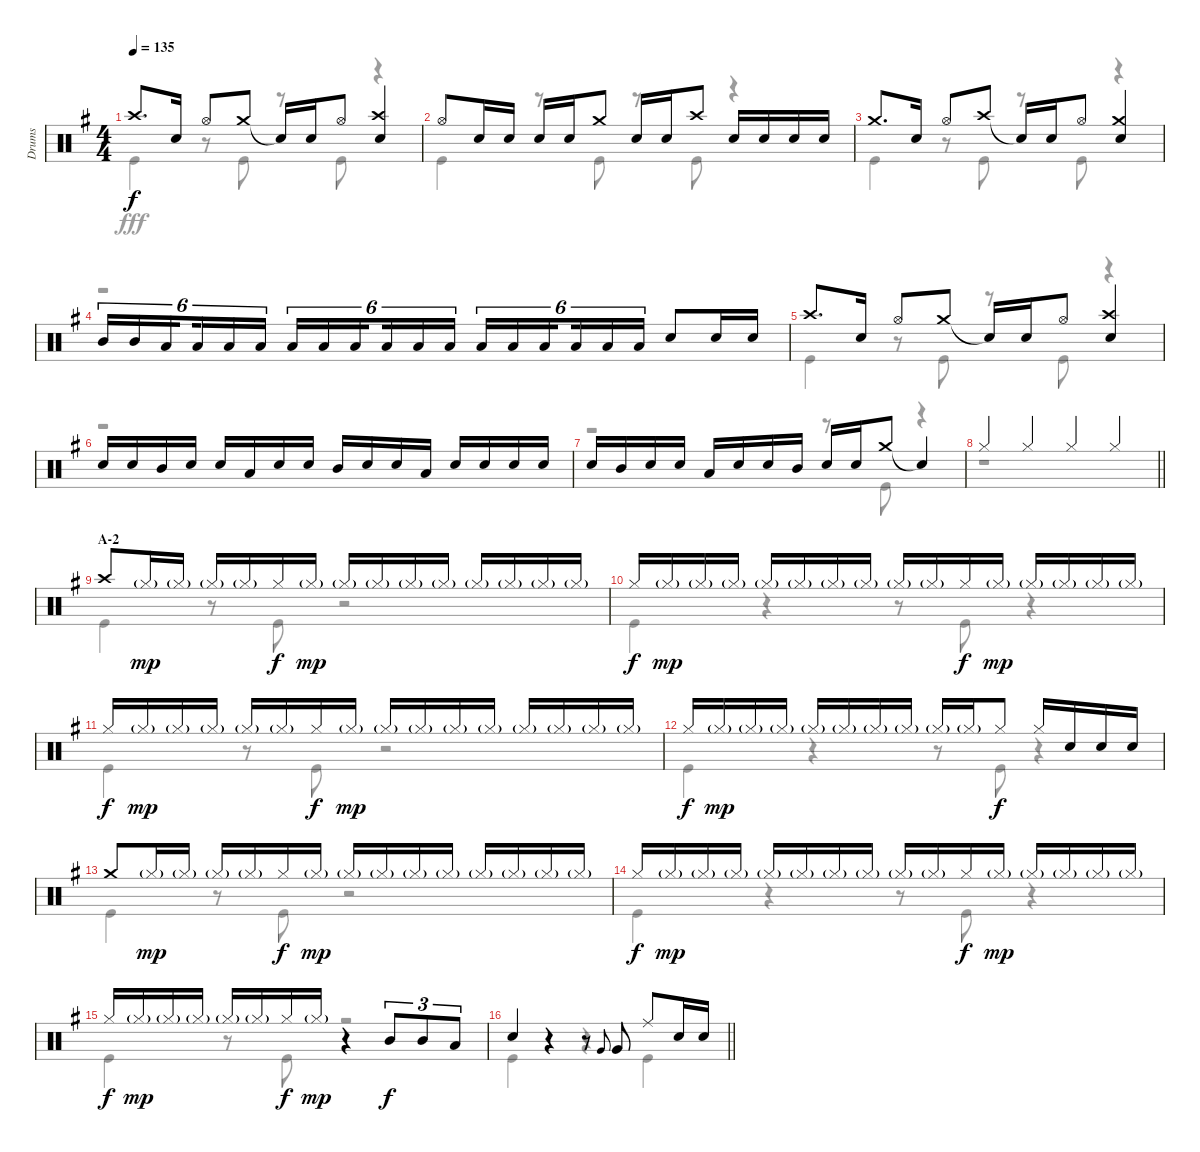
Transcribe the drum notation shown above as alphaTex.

\track ("Drums" "Drums") {instrument percussion}
\staff {score}
\articulation defaults
\voice
\ts (4 4)
\tempo 135
\clef neutral
\ks g "Crash high (hit)".8{d dy f} "Snare (hit) 2".16 "Hi-Hat (open)".8 "Crash medium (hit)".8 "Snare (hit)"{t}.16 "Snare (hit) 2".16 "Hi-Hat (open)".8
("Crash high (hit)" "Snare (hit) 2").4 |
"Hi-Hat (open)".8 "Snare (hit) 2".16 "Snare (hit) 2".16 "Snare (hit) 2".16 "Snare (hit) 2".16 "Crash medium (hit)".8 "Snare (hit) 2".16 "Snare (hit) 2".16 "Crash high (hit)".8 "Snare (hit) 2".16 "Snare (hit) 2".16 "Snare (hit) 2".16 "Snare (hit) 2".16 |
"Crash medium (hit)".8{d} "Snare (hit) 2".16 "Hi-Hat (open)".8 "Crash high (hit)".8 "Snare (hit)"{t}.16 "Snare (hit) 2".16 "Hi-Hat (open)".8 ("Crash medium (hit)" "Snare (hit) 2").4 |
"Mid Tom (hit)".16{tu (6 4)} "Mid Tom (hit)".16{tu (6 4)} "Low Tom (hit)".16{tu (6 4) beam splitsecondary} "Low Tom (hit)".16{tu (6 4)} "Low Tom (hit)".16{tu (6 4)} "Low Tom (hit)".16{tu (6 4)} "Low Tom (hit)".16{tu (6 4)} "Low Tom (hit)".16{tu (6 4)} "Low Tom (hit)".16{tu (6 4) beam splitsecondary} "Low Tom (hit)".16{tu (6 4)} "Low Tom (hit)".16{tu (6 4)} "Low Tom (hit)".16{tu (6 4)} "Low Tom (hit)".16{tu (6 4)} "Low Tom (hit)".16{tu (6 4)} "Low Tom (hit)".16{tu (6 4) beam splitsecondary} "Low Tom (hit)".16{tu (6 4)} "Low Tom (hit)".16{tu (6 4)} "Low Tom (hit)".16{tu (6 4)} "Snare (hit) 2".8 "Snare (hit) 2".16 "Snare (hit) 2".16 |
"Crash high (hit)".8{d} "Snare (hit) 2".16 "Hi-Hat (open)".8 "Crash medium (hit)".8 "Snare (hit)"{t}.16 "Snare (hit) 2".16 "Hi-Hat (open)".8 ("Crash high (hit)" "Snare (hit) 2").4 |
"Snare (hit) 2".16 "Snare (hit) 2".16 "Mid Tom (hit)".16 "Snare (hit) 2".16 "Snare (hit) 2".16 "Low Tom (hit)".16 "Snare (hit) 2".16 "Snare (hit) 2".16 "Mid Tom (hit)".16 "Snare (hit) 2".16 "Snare (hit) 2".16 "Low Tom (hit)".16 "Snare (hit) 2".16 "Snare (hit) 2".16 "Snare (hit) 2".16 "Snare (hit) 2".16 |
"Snare (hit) 2".16 "Mid Tom (hit)".16 "Snare (hit) 2".16 "Snare (hit) 2".16 "Low Tom (hit)".16 "Snare (hit) 2".16 "Snare (hit) 2".16 "Mid Tom (hit)".16 "Snare (hit) 2".16 "Snare (hit) 2".16 "Crash medium (hit)".8 "Snare (hit)"{t}.4 |
\barLineRight lightlight "Hi-Hat (closed)".4 "Hi-Hat (closed)".4 "Hi-Hat (closed)".4 "Hi-Hat (closed)".4
|
\section ("" "A-2")
"Crash high (hit)".8 "Hi-Hat (closed)"{g}.16{dy mp} "Hi-Hat (closed)"{g}.16 "Hi-Hat (closed)"{g}.16 "Hi-Hat (closed)"{g}.16 "Hi-Hat (closed)".16{dy f} "Hi-Hat (closed)"{g}.16{dy mp} "Hi-Hat (closed)"{g}.16 "Hi-Hat (closed)"{g}.16 "Hi-Hat (closed)"{g}.16 "Hi-Hat (closed)"{g}.16 "Hi-Hat (closed)"{g}.16 "Hi-Hat (closed)"{g}.16 "Hi-Hat (closed)"{g}.16 "Hi-Hat (closed)"{g}.16 |
"Hi-Hat (closed)".16{dy f} "Hi-Hat (closed)"{g}.16{dy mp} "Hi-Hat (closed)"{g}.16 "Hi-Hat (closed)"{g}.16 "Hi-Hat (closed)"{g}.16 "Hi-Hat (closed)"{g}.16 "Hi-Hat (closed)"{g}.16 "Hi-Hat (closed)"{g}.16 "Hi-Hat (closed)"{g}.16 "Hi-Hat (closed)"{g}.16 "Hi-Hat (closed)".16{dy f} "Hi-Hat (closed)"{g}.16{dy mp} "Hi-Hat (closed)"{g}.16 "Hi-Hat (closed)"{g}.16 "Hi-Hat (closed)"{g}.16 "Hi-Hat (closed)"{g}.16 |
"Hi-Hat (closed)".16{dy f} "Hi-Hat (closed)"{g}.16{dy mp} "Hi-Hat (closed)"{g}.16 "Hi-Hat (closed)"{g}.16 "Hi-Hat (closed)"{g}.16 "Hi-Hat (closed)"{g}.16 "Hi-Hat (closed)".16{dy f} "Hi-Hat (closed)"{g}.16{dy mp} "Hi-Hat (closed)"{g}.16 "Hi-Hat (closed)"{g}.16 "Hi-Hat (closed)"{g}.16 "Hi-Hat (closed)"{g}.16 "Hi-Hat (closed)"{g}.16 "Hi-Hat (closed)"{g}.16 "Hi-Hat (closed)"{g}.16 "Hi-Hat (closed)"{g}.16 |
"Hi-Hat (closed)".16{dy f} "Hi-Hat (closed)"{g}.16{dy mp} "Hi-Hat (closed)"{g}.16 "Hi-Hat (closed)"{g}.16 "Hi-Hat (closed)"{g}.16 "Hi-Hat (closed)"{g}.16 "Hi-Hat (closed)"{g}.16 "Hi-Hat (closed)"{g}.16 "Hi-Hat (closed)"{g}.16 "Hi-Hat (closed)"{g}.16 "Hi-Hat (closed)".8{dy f} "Hi-Hat (closed)".16 "Snare (hit) 2".16 "Snare (hit) 2".16 "Snare (hit) 2".16 |
"Crash medium (hit)".8 "Hi-Hat (closed)"{g}.16{dy mp} "Hi-Hat (closed)"{g}.16 "Hi-Hat (closed)"{g}.16 "Hi-Hat (closed)"{g}.16 "Hi-Hat (closed)".16{dy f} "Hi-Hat (closed)"{g}.16{dy mp} "Hi-Hat (closed)"{g}.16 "Hi-Hat (closed)"{g}.16 "Hi-Hat (closed)"{g}.16 "Hi-Hat (closed)"{g}.16 "Hi-Hat (closed)"{g}.16 "Hi-Hat (closed)"{g}.16 "Hi-Hat (closed)"{g}.16 "Hi-Hat (closed)"{g}.16 |
"Hi-Hat (closed)".16{dy f} "Hi-Hat (closed)"{g}.16{dy mp} "Hi-Hat (closed)"{g}.16 "Hi-Hat (closed)"{g}.16 "Hi-Hat (closed)"{g}.16 "Hi-Hat (closed)"{g}.16 "Hi-Hat (closed)"{g}.16 "Hi-Hat (closed)"{g}.16 "Hi-Hat (closed)"{g}.16 "Hi-Hat (closed)"{g}.16 "Hi-Hat (closed)".16{dy f} "Hi-Hat (closed)"{g}.16{dy mp} "Hi-Hat (closed)"{g}.16 "Hi-Hat (closed)"{g}.16 "Hi-Hat (closed)"{g}.16 "Hi-Hat (closed)"{g}.16 |
"Hi-Hat (closed)".16{dy f} "Hi-Hat (closed)"{g}.16{dy mp} "Hi-Hat (closed)"{g}.16 "Hi-Hat (closed)"{g}.16 "Hi-Hat (closed)"{g}.16 "Hi-Hat (closed)"{g}.16 "Hi-Hat (closed)".16{dy f} "Hi-Hat (closed)"{g}.16{dy mp} r.4 "Mid Tom (hit)".8{tu (3 2) dy f} "Mid Tom (hit)".8{tu (3 2)} "Low Tom (hit)".8{tu (3 2)} |
\barLineRight lightlight "Snare (hit) 2".4
r.4 r.8 "Very Low Tom (hit)".8{gr onbeat} "Very Low Tom (hit)".8 "Ride (middle)".8 "Snare (hit) 2".16 "Snare (hit) 2".16
\voice
\clef neutral
\ottava regular
\simile none
\ks g "Kick (hit)".4{dy fff}
r.8 "Kick (hit)".8 r.8 "Kick (hit)".8 r.4 |
"Kick (hit)".4 r.8 "Kick (hit)".8 r.8 "Kick (hit)".8 r.4 |
"Kick (hit)".4 r.8 "Kick (hit)".8 r.8 "Kick (hit)".8 r.4 |
r.1 |
"Kick (hit)".4 r.8 "Kick (hit)".8 r.8 "Kick (hit)".8 r.4 |
r.1 |
r.2 r.8 "Kick (hit)".8 r.4 |
\barLineRight lightlight
r.1 |
"Kick (hit)".4 r.8 "Kick (hit)".8 r.2 |
"Kick (hit)".4 r.4 r.8 "Kick (hit)".8 r.4 |
"Kick (hit)".4 r.8 "Kick (hit)".8 r.2 |
"Kick (hit)".4 r.4 r.8 "Kick (hit)".8 r.4 |
"Kick (hit)".4 r.8 "Kick (hit)".8 r.2 |
"Kick (hit)".4 r.4 r.8 "Kick (hit)".8 r.4 |
"Kick (hit)".4 r.8 "Kick (hit)".8 r.2 |
\barLineRight lightlight "Kick (hit)".4
r.4 r.4 "Kick (hit)".4
